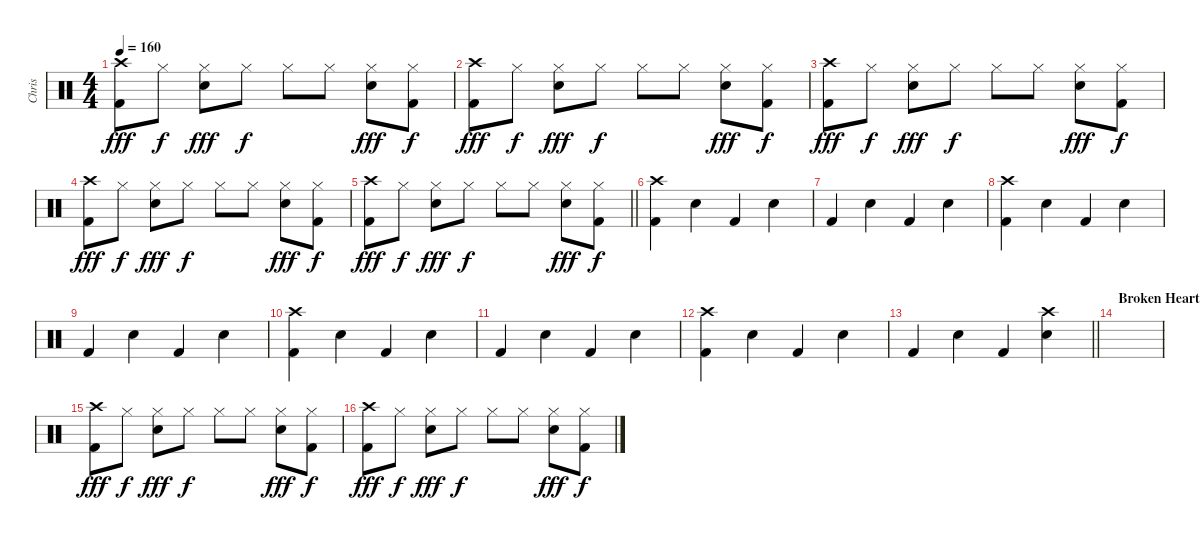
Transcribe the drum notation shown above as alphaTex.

\track ("Chris" "Chris") {instrument percussion}
\staff {score}
\articulation defaults
\ts (4 4)
\tempo 160
\clef neutral
\ks c
("Crash high (hit)" "Kick (hit) 2").8{dy fff} "Hi-Hat (closed)".8{dy f} ("Hi-Hat (closed)" "Snare (hit) 2").8{dy fff} "Hi-Hat (closed)".8{dy f} "Hi-Hat (closed)".8 "Hi-Hat (closed)".8 ("Hi-Hat (closed)" "Snare (hit) 2").8{dy fff} ("Hi-Hat (closed)" "Kick (hit) 2").8{dy f} |
("Crash high (hit)" "Kick (hit) 2").8{dy fff} "Hi-Hat (closed)".8{dy f} ("Hi-Hat (closed)" "Snare (hit) 2").8{dy fff} "Hi-Hat (closed)".8{dy f} "Hi-Hat (closed)".8 "Hi-Hat (closed)".8 ("Hi-Hat (closed)" "Snare (hit) 2").8{dy fff} ("Hi-Hat (closed)" "Kick (hit) 2").8{dy f} |
("Crash high (hit)" "Kick (hit) 2").8{dy fff} "Hi-Hat (closed)".8{dy f} ("Hi-Hat (closed)" "Snare (hit) 2").8{dy fff} "Hi-Hat (closed)".8{dy f} "Hi-Hat (closed)".8 "Hi-Hat (closed)".8 ("Hi-Hat (closed)" "Snare (hit) 2").8{dy fff} ("Hi-Hat (closed)" "Kick (hit) 2").8{dy f} |
("Crash high (hit)" "Kick (hit) 2").8{dy fff} "Hi-Hat (closed)".8{dy f} ("Hi-Hat (closed)" "Snare (hit) 2").8{dy fff} "Hi-Hat (closed)".8{dy f} "Hi-Hat (closed)".8 "Hi-Hat (closed)".8 ("Hi-Hat (closed)" "Snare (hit) 2").8{dy fff} ("Hi-Hat (closed)" "Kick (hit) 2").8{dy f} |
\barLineRight lightlight
("Crash high (hit)" "Kick (hit) 2").8{dy fff} "Hi-Hat (closed)".8{dy f} ("Hi-Hat (closed)" "Snare (hit) 2").8{dy fff} "Hi-Hat (closed)".8{dy f} "Hi-Hat (closed)".8 "Hi-Hat (closed)".8 ("Hi-Hat (closed)" "Snare (hit) 2").8{dy fff} ("Hi-Hat (closed)" "Kick (hit) 2").8{dy f} |
("Crash high (hit)" "Kick (hit) 2").4 "Electric Snare (hit)".4 "Kick (hit) 2".4 "Electric Snare (hit)".4 |
"Kick (hit) 2".4 "Electric Snare (hit)".4 "Kick (hit) 2".4 "Electric Snare (hit)".4 |
("Crash high (hit)" "Kick (hit) 2").4 "Electric Snare (hit)".4 "Kick (hit) 2".4 "Electric Snare (hit)".4 |
"Kick (hit) 2".4 "Electric Snare (hit)".4 "Kick (hit) 2".4 "Electric Snare (hit)".4 |
("Crash high (hit)" "Kick (hit) 2").4 "Electric Snare (hit)".4 "Kick (hit) 2".4 "Electric Snare (hit)".4 |
"Kick (hit) 2".4 "Electric Snare (hit)".4 "Kick (hit) 2".4 "Electric Snare (hit)".4 |
("Crash high (hit)" "Kick (hit) 2").4 "Electric Snare (hit)".4 "Kick (hit) 2".4 "Electric Snare (hit)".4 |
\barLineRight lightlight "Kick (hit) 2".4 "Electric Snare (hit)".4 "Kick (hit) 2".4
("Crash high (hit)" "Electric Snare (hit)").4 |
\section ("" "Broken Heart Chorus")
|
("Crash high (hit)" "Kick (hit) 2").8{dy fff} "Hi-Hat (closed)".8{dy f} ("Hi-Hat (closed)" "Snare (hit) 2").8{dy fff} "Hi-Hat (closed)".8{dy f} "Hi-Hat (closed)".8 "Hi-Hat (closed)".8 ("Hi-Hat (closed)" "Snare (hit) 2").8{dy fff} ("Hi-Hat (closed)" "Kick (hit) 2").8{dy f} |
("Crash high (hit)" "Kick (hit) 2").8{dy fff} "Hi-Hat (closed)".8{dy f} ("Hi-Hat (closed)" "Snare (hit) 2").8{dy fff} "Hi-Hat (closed)".8{dy f} "Hi-Hat (closed)".8 "Hi-Hat (closed)".8 ("Hi-Hat (closed)" "Snare (hit) 2").8{dy fff} ("Hi-Hat (closed)" "Kick (hit) 2").8{dy f}
